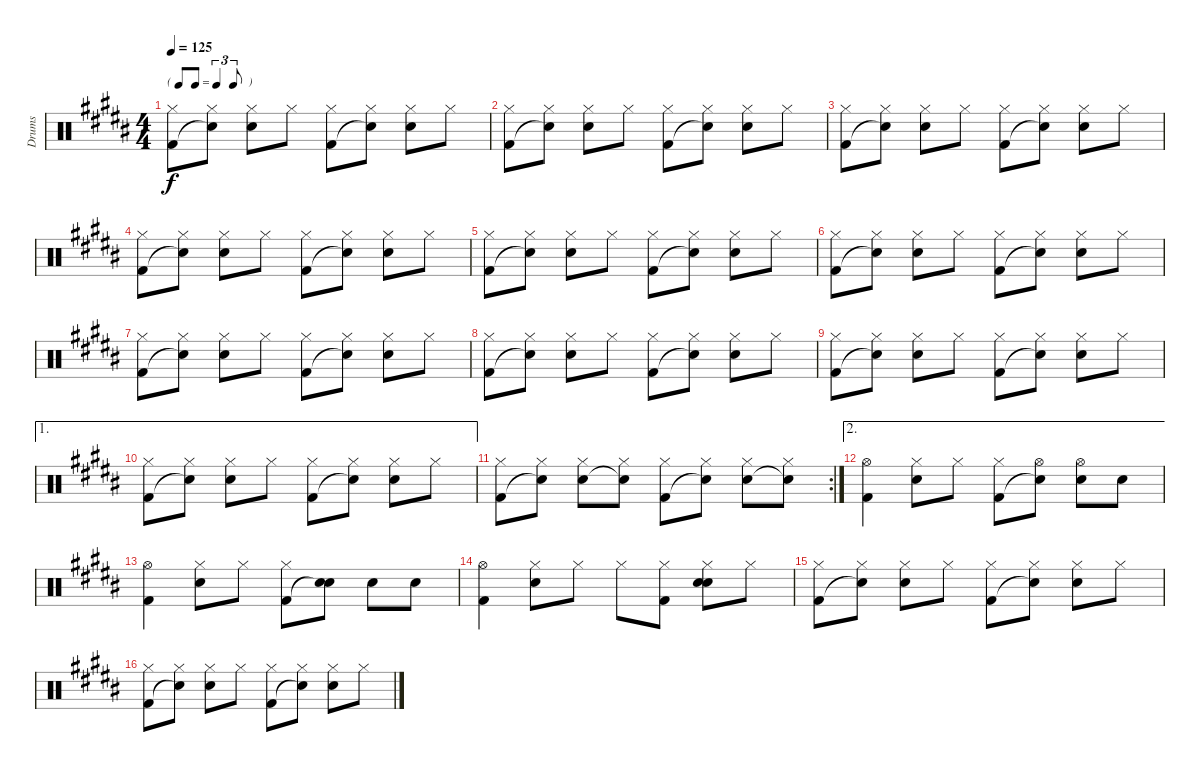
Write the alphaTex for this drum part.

\track ("Drums" "Drums") {instrument percussion}
\staff {score}
\articulation defaults
\ts (4 4)
\tf triplet8th
\tempo 125
\clef neutral
\ks b
("Hi-Hat (closed)" "Kick (hit) 2").8{dy f} ("Hi-Hat (closed)" "Snare (hit)"{t}).8 ("Hi-Hat (closed)" "Snare (hit) 2").8 "Hi-Hat (closed)".8 ("Hi-Hat (closed)" "Kick (hit) 2").8 ("Hi-Hat (closed)" "Snare (hit)"{t}).8 ("Hi-Hat (closed)" "Snare (hit) 2").8 "Hi-Hat (closed)".8 |
("Hi-Hat (closed)" "Kick (hit) 2").8 ("Hi-Hat (closed)" "Snare (hit)"{t}).8 ("Hi-Hat (closed)" "Snare (hit) 2").8 "Hi-Hat (closed)".8 ("Hi-Hat (closed)" "Kick (hit) 2").8 ("Hi-Hat (closed)" "Snare (hit)"{t}).8 ("Hi-Hat (closed)" "Snare (hit) 2").8 "Hi-Hat (closed)".8 |
("Hi-Hat (closed)" "Kick (hit) 2").8 ("Hi-Hat (closed)" "Snare (hit)"{t}).8 ("Hi-Hat (closed)" "Snare (hit) 2").8 "Hi-Hat (closed)".8 ("Hi-Hat (closed)" "Kick (hit) 2").8 ("Hi-Hat (closed)" "Snare (hit)"{t}).8 ("Hi-Hat (closed)" "Snare (hit) 2").8 "Hi-Hat (closed)".8 |
("Hi-Hat (closed)" "Kick (hit) 2").8 ("Hi-Hat (closed)" "Snare (hit)"{t}).8 ("Hi-Hat (closed)" "Snare (hit) 2").8 "Hi-Hat (closed)".8 ("Hi-Hat (closed)" "Kick (hit) 2").8 ("Hi-Hat (closed)" "Snare (hit)"{t}).8 ("Hi-Hat (closed)" "Snare (hit) 2").8 "Hi-Hat (closed)".8 |
("Hi-Hat (closed)" "Kick (hit) 2").8 ("Hi-Hat (closed)" "Snare (hit)"{t}).8 ("Hi-Hat (closed)" "Snare (hit) 2").8 "Hi-Hat (closed)".8 ("Hi-Hat (closed)" "Kick (hit) 2").8 ("Hi-Hat (closed)" "Snare (hit)"{t}).8 ("Hi-Hat (closed)" "Snare (hit) 2").8 "Hi-Hat (closed)".8 |
("Hi-Hat (closed)" "Kick (hit) 2").8 ("Hi-Hat (closed)" "Snare (hit)"{t}).8 ("Hi-Hat (closed)" "Snare (hit) 2").8 "Hi-Hat (closed)".8 ("Hi-Hat (closed)" "Kick (hit) 2").8 ("Hi-Hat (closed)" "Snare (hit)"{t}).8 ("Hi-Hat (closed)" "Snare (hit) 2").8 "Hi-Hat (closed)".8 |
("Hi-Hat (closed)" "Kick (hit) 2").8 ("Hi-Hat (closed)" "Snare (hit)"{t}).8 ("Hi-Hat (closed)" "Snare (hit) 2").8 "Hi-Hat (closed)".8 ("Hi-Hat (closed)" "Kick (hit) 2").8 ("Hi-Hat (closed)" "Snare (hit)"{t}).8 ("Hi-Hat (closed)" "Snare (hit) 2").8 "Hi-Hat (closed)".8 |
("Hi-Hat (closed)" "Kick (hit) 2").8 ("Hi-Hat (closed)" "Snare (hit)"{t}).8 ("Hi-Hat (closed)" "Snare (hit) 2").8 "Hi-Hat (closed)".8 ("Hi-Hat (closed)" "Kick (hit) 2").8 ("Hi-Hat (closed)" "Snare (hit)"{t}).8 ("Hi-Hat (closed)" "Snare (hit) 2").8 "Hi-Hat (closed)".8 |
("Hi-Hat (closed)" "Kick (hit) 2").8 ("Hi-Hat (closed)" "Snare (hit)"{t}).8 ("Hi-Hat (closed)" "Snare (hit) 2").8 "Hi-Hat (closed)".8 ("Hi-Hat (closed)" "Kick (hit) 2").8 ("Hi-Hat (closed)" "Snare (hit)"{t}).8 ("Hi-Hat (closed)" "Snare (hit) 2").8 "Hi-Hat (closed)".8 |
\ae 1
("Hi-Hat (closed)" "Kick (hit) 2").8 ("Hi-Hat (closed)" "Snare (hit)"{t}).8 ("Hi-Hat (closed)" "Snare (hit) 2").8 "Hi-Hat (closed)".8 ("Hi-Hat (closed)" "Kick (hit) 2").8 ("Hi-Hat (closed)" "Snare (hit)"{t}).8 ("Hi-Hat (closed)" "Snare (hit) 2").8 "Hi-Hat (closed)".8 |
\rc 2
("Hi-Hat (closed)" "Kick (hit) 2").8 ("Hi-Hat (closed)" "Snare (hit)"{t}).8 ("Hi-Hat (closed)" "Snare (hit) 2").8 ("Hi-Hat (closed)" "Snare (hit)"{t}).8 ("Hi-Hat (closed)" "Kick (hit) 2").8 ("Hi-Hat (closed)" "Snare (hit)"{t}).8 ("Hi-Hat (closed)" "Snare (hit) 2").8 ("Hi-Hat (closed)" "Snare (hit)"{t}).8 |
\ae 2
("Hi-Hat (open)" "Kick (hit) 2").4 ("Hi-Hat (closed)" "Snare (hit) 2").8 "Hi-Hat (closed)".8 ("Hi-Hat (closed)" "Kick (hit) 2").8 ("Hi-Hat (open)" "Snare (hit)"{t}).8 ("Hi-Hat (open)" "Snare (hit) 2").8 "Snare (hit) 2".8 |
("Hi-Hat (open)" "Kick (hit) 2").4 ("Hi-Hat (closed)" "Snare (hit) 2").8 "Hi-Hat (closed)".8 ("Hi-Hat (closed)" "Kick (hit) 2").8 ("Snare (hit) 2" "Snare (hit)"{t}).8 "Snare (hit) 2".8 "Snare (hit) 2".8 |
("Hi-Hat (open)" "Kick (hit) 2").4 ("Hi-Hat (closed)" "Snare (hit) 2").8 "Hi-Hat (closed)".8 "Hi-Hat (closed)".8 ("Hi-Hat (closed)" "Kick (hit) 2").8 ("Hi-Hat (closed)" "Snare (hit) 2" "Snare (hit)").8 "Hi-Hat (closed)".8 |
("Hi-Hat (closed)" "Kick (hit) 2").8 ("Hi-Hat (closed)" "Snare (hit)"{t}).8 ("Hi-Hat (closed)" "Snare (hit) 2").8 "Hi-Hat (closed)".8 ("Hi-Hat (closed)" "Kick (hit) 2").8 ("Hi-Hat (closed)" "Snare (hit)"{t}).8 ("Hi-Hat (closed)" "Snare (hit) 2").8 "Hi-Hat (closed)".8 |
("Hi-Hat (closed)" "Kick (hit) 2").8 ("Hi-Hat (closed)" "Snare (hit)"{t}).8 ("Hi-Hat (closed)" "Snare (hit) 2").8 "Hi-Hat (closed)".8 ("Hi-Hat (closed)" "Kick (hit) 2").8 ("Hi-Hat (closed)" "Snare (hit)"{t}).8 ("Hi-Hat (closed)" "Snare (hit) 2").8 "Hi-Hat (closed)".8
